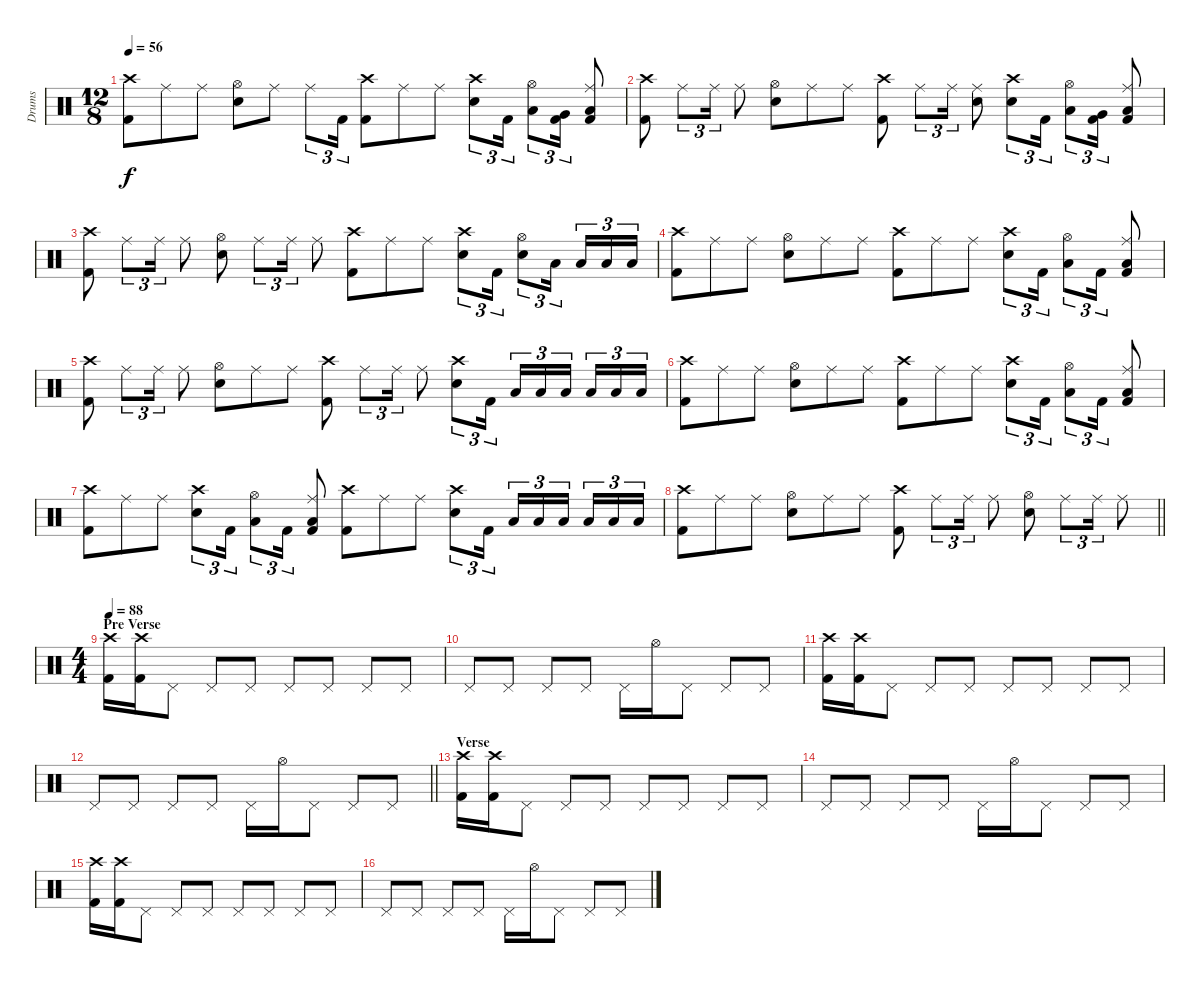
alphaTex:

\track ("Drums" "Drums") {instrument percussion}
\staff {score}
\articulation defaults
\ts (12 8)
\tempo 56
\clef neutral
\ks c
("Crash high (hit)" "Kick (hit) 2").8{dy f} "Ride (middle)".8 "Ride (middle)".8 ("Hi-Hat (open)" "Snare (hit) 2").8 "Ride (middle)".8 "Ride (middle)".8{tu (3 2)} "Kick (hit) 2".16{tu (3 2)} ("Crash high (hit)" "Kick (hit) 2").8 "Ride (middle)".8 "Ride (middle)".8 ("Crash high (hit)" "Snare (hit) 2").8{tu (3 2)} "Kick (hit) 2".16{tu (3 2)} ("Hi-Hat (open)" "Low Tom (hit)").8{tu (3 2)} ("Very Low Tom (hit)" "Kick (hit) 2").16{tu (3 2)} ("Ride (middle)" "Low Tom (hit)" "Kick (hit) 2").8 |
("Crash high (hit)" "Kick (hit) 2").8 "Ride (middle)".8{tu (3 2)} "Ride (middle)".16{tu (3 2)} "Ride (middle)".8 ("Hi-Hat (open)" "Snare (hit) 2").8 "Ride (middle)".8 "Ride (middle)".8 ("Crash high (hit)" "Kick (hit) 2").8 "Ride (middle)".8{tu (3 2)} "Ride (middle)".16{tu (3 2)} ("Ride (middle)" "Snare (hit) 2").8 ("Crash high (hit)" "Snare (hit) 2").8{tu (3 2)} "Kick (hit) 2".16{tu (3 2)} ("Hi-Hat (open)" "Low Tom (hit)").8{tu (3 2)} ("Very Low Tom (hit)" "Kick (hit) 2").16{tu (3 2)} ("Ride (middle)" "Low Tom (hit)" "Kick (hit) 2").8 |
("Crash high (hit)" "Kick (hit) 2").8 "Ride (middle)".8{tu (3 2)} "Ride (middle)".16{tu (3 2)} "Ride (middle)".8 ("Hi-Hat (open)" "Snare (hit) 2").8 "Ride (middle)".8{tu (3 2)} "Ride (middle)".16{tu (3 2)} "Ride (middle)".8 ("Crash high (hit)" "Kick (hit) 2").8 "Ride (middle)".8 "Ride (middle)".8 ("Crash high (hit)" "Snare (hit) 2").8{tu (3 2)} "Kick (hit) 2".16{tu (3 2)} ("Hi-Hat (open)" "Snare (hit) 2").8{tu (3 2)} "Low Tom (hit)".16{tu (3 2) beam splitsecondary} "Low Tom (hit)".16{tu (3 2)} "Low Tom (hit)".16{tu (3 2)} "Low Tom (hit)".16{tu (3 2)} |
("Crash high (hit)" "Kick (hit) 2").8 "Ride (middle)".8 "Ride (middle)".8 ("Hi-Hat (open)" "Snare (hit) 2").8 "Ride (middle)".8 "Ride (middle)".8 ("Crash high (hit)" "Kick (hit) 2").8 "Ride (middle)".8 "Ride (middle)".8 ("Crash high (hit)" "Snare (hit) 2").8{tu (3 2)} "Kick (hit) 2".16{tu (3 2)} ("Hi-Hat (open)" "Low Tom (hit)").8{tu (3 2)} "Kick (hit) 2".16{tu (3 2)} ("Ride (middle)" "Low Tom (hit)" "Kick (hit) 2").8 |
("Crash high (hit)" "Kick (hit) 2").8 "Ride (middle)".8{tu (3 2)} "Ride (middle)".16{tu (3 2)} "Ride (middle)".8 ("Hi-Hat (open)" "Snare (hit) 2").8 "Ride (middle)".8 "Ride (middle)".8 ("Crash high (hit)" "Kick (hit) 2").8 "Ride (middle)".8{tu (3 2)} "Ride (middle)".16{tu (3 2)} "Ride (middle)".8 ("Crash high (hit)" "Snare (hit) 2").8{tu (3 2)} "Kick (hit) 2".16{tu (3 2) beam splitsecondary} "Low Tom (hit)".16{tu (3 2)} "Low Tom (hit)".16{tu (3 2)} "Low Tom (hit)".16{tu (3 2) beam splitsecondary} "Low Tom (hit)".16{tu (3 2)} "Low Tom (hit)".16{tu (3 2)} "Low Tom (hit)".16{tu (3 2)} |
("Crash high (hit)" "Kick (hit) 2").8 "Ride (middle)".8 "Ride (middle)".8 ("Hi-Hat (open)" "Snare (hit) 2").8 "Ride (middle)".8 "Ride (middle)".8 ("Crash high (hit)" "Kick (hit) 2").8 "Ride (middle)".8 "Ride (middle)".8 ("Crash high (hit)" "Snare (hit) 2").8{tu (3 2)} "Kick (hit) 2".16{tu (3 2)} ("Hi-Hat (open)" "Low Tom (hit)").8{tu (3 2)} "Kick (hit) 2".16{tu (3 2)} ("Ride (middle)" "Low Tom (hit)" "Kick (hit) 2").8 |
("Crash high (hit)" "Kick (hit) 2").8 "Ride (middle)".8 "Ride (middle)".8 ("Crash high (hit)" "Snare (hit) 2").8{tu (3 2)} "Kick (hit) 2".16{tu (3 2)} ("Hi-Hat (open)" "Low Tom (hit)").8{tu (3 2)} "Kick (hit) 2".16{tu (3 2)} ("Ride (middle)" "Low Tom (hit)" "Kick (hit) 2").8 ("Crash high (hit)" "Kick (hit) 2").8 "Ride (middle)".8 "Ride (middle)".8 ("Crash high (hit)" "Snare (hit) 2").8{tu (3 2)} "Kick (hit) 2".16{tu (3 2) beam splitsecondary} "Low Tom (hit)".16{tu (3 2)} "Low Tom (hit)".16{tu (3 2)} "Low Tom (hit)".16{tu (3 2) beam splitsecondary} "Low Tom (hit)".16{tu (3 2)} "Low Tom (hit)".16{tu (3 2)} "Low Tom (hit)".16{tu (3 2)} |
\barLineRight lightlight
("Crash high (hit)" "Kick (hit) 2").8 "Ride (middle)".8 "Ride (middle)".8 ("Hi-Hat (open)" "Snare (hit) 2").8 "Ride (middle)".8 "Ride (middle)".8 ("Crash high (hit)" "Kick (hit) 2").8 "Ride (middle)".8{tu (3 2)} "Ride (middle)".16{tu (3 2)} "Ride (middle)".8 ("Hi-Hat (open)" "Snare (hit) 2").8 "Ride (middle)".8{tu (3 2)} "Ride (middle)".16{tu (3 2)} "Ride (middle)".8 |
\ts (4 4)
\section ("" "Pre Verse")
\tempo 88
("Crash high (hit)" "Kick (hit) 2").16 ("Crash high (hit)" "Kick (hit) 2").16 "Pedal Hi-Hat (hit)".8 "Pedal Hi-Hat (hit)".8 "Pedal Hi-Hat (hit)".8 "Pedal Hi-Hat (hit)".8 "Pedal Hi-Hat (hit)".8 "Pedal Hi-Hat (hit)".8 "Pedal Hi-Hat (hit)".8 |
"Pedal Hi-Hat (hit)".8 "Pedal Hi-Hat (hit)".8 "Pedal Hi-Hat (hit)".8 "Pedal Hi-Hat (hit)".8 "Pedal Hi-Hat (hit)".16 "Hi-Hat (open)".16 "Pedal Hi-Hat (hit)".8 "Pedal Hi-Hat (hit)".8 "Pedal Hi-Hat (hit)".8 |
("Crash high (hit)" "Kick (hit) 2").16 ("Crash high (hit)" "Kick (hit) 2").16 "Pedal Hi-Hat (hit)".8 "Pedal Hi-Hat (hit)".8 "Pedal Hi-Hat (hit)".8 "Pedal Hi-Hat (hit)".8 "Pedal Hi-Hat (hit)".8 "Pedal Hi-Hat (hit)".8 "Pedal Hi-Hat (hit)".8 |
\barLineRight lightlight "Pedal Hi-Hat (hit)".8 "Pedal Hi-Hat (hit)".8 "Pedal Hi-Hat (hit)".8 "Pedal Hi-Hat (hit)".8 "Pedal Hi-Hat (hit)".16 "Hi-Hat (open)".16 "Pedal Hi-Hat (hit)".8 "Pedal Hi-Hat (hit)".8 "Pedal Hi-Hat (hit)".8
|
\section ("" "Verse")
("Crash high (hit)" "Kick (hit) 2").16 ("Crash high (hit)" "Kick (hit) 2").16 "Pedal Hi-Hat (hit)".8 "Pedal Hi-Hat (hit)".8 "Pedal Hi-Hat (hit)".8 "Pedal Hi-Hat (hit)".8 "Pedal Hi-Hat (hit)".8 "Pedal Hi-Hat (hit)".8 "Pedal Hi-Hat (hit)".8 |
"Pedal Hi-Hat (hit)".8 "Pedal Hi-Hat (hit)".8 "Pedal Hi-Hat (hit)".8 "Pedal Hi-Hat (hit)".8 "Pedal Hi-Hat (hit)".16 "Hi-Hat (open)".16 "Pedal Hi-Hat (hit)".8 "Pedal Hi-Hat (hit)".8 "Pedal Hi-Hat (hit)".8 |
("Crash high (hit)" "Kick (hit) 2").16 ("Crash high (hit)" "Kick (hit) 2").16 "Pedal Hi-Hat (hit)".8 "Pedal Hi-Hat (hit)".8 "Pedal Hi-Hat (hit)".8 "Pedal Hi-Hat (hit)".8 "Pedal Hi-Hat (hit)".8 "Pedal Hi-Hat (hit)".8 "Pedal Hi-Hat (hit)".8 |
"Pedal Hi-Hat (hit)".8 "Pedal Hi-Hat (hit)".8 "Pedal Hi-Hat (hit)".8 "Pedal Hi-Hat (hit)".8 "Pedal Hi-Hat (hit)".16 "Hi-Hat (open)".16 "Pedal Hi-Hat (hit)".8 "Pedal Hi-Hat (hit)".8 "Pedal Hi-Hat (hit)".8
